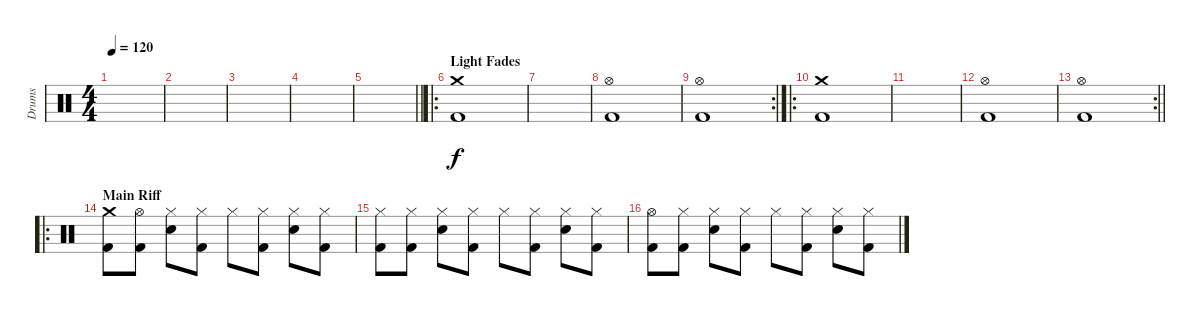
\track ("Drums" "Drums") {instrument percussion}
\staff {score}
\articulation defaults
\ts (4 4)
\tempo 120
\clef neutral
\ks c
|
|
|
|
\barLineRight lightlight
|
\ro
\section ("" "Light Fades")
("Kick (hit) 2" "Crash medium (hit)").1 |
|
("Kick (hit) 2" "Hi-Hat (open)").1 |
\rc 2
("Kick (hit) 2" "Hi-Hat (open)").1 |
\ro
("Kick (hit) 2" "Crash medium (hit)").1 |
|
("Kick (hit) 2" "Hi-Hat (open)").1 |
\rc 2
\barLineRight lightlight
("Kick (hit) 2" "Hi-Hat (open)").1 |
\ro
\section ("" "Main Riff")
("Kick (hit) 2" "Crash medium (hit)").8 ("Kick (hit) 2" "Hi-Hat (open)").8 ("Snare (hit) 2" "Hi-Hat (closed)").8 ("Kick (hit) 2" "Hi-Hat (closed)").8 "Hi-Hat (closed)".8 ("Kick (hit) 2" "Hi-Hat (closed)").8 ("Snare (hit) 2" "Hi-Hat (closed)").8 ("Kick (hit) 2" "Hi-Hat (closed)").8 |
("Kick (hit) 2" "Hi-Hat (closed)").8 ("Kick (hit) 2" "Hi-Hat (closed)").8 ("Snare (hit) 2" "Hi-Hat (closed)").8 ("Kick (hit) 2" "Hi-Hat (closed)").8 "Hi-Hat (closed)".8 ("Kick (hit) 2" "Hi-Hat (closed)").8 ("Snare (hit) 2" "Hi-Hat (closed)").8 ("Kick (hit) 2" "Hi-Hat (closed)").8 |
("Kick (hit) 2" "Hi-Hat (open)").8 ("Kick (hit) 2" "Hi-Hat (closed)").8 ("Snare (hit) 2" "Hi-Hat (closed)").8 ("Kick (hit) 2" "Hi-Hat (closed)").8 "Hi-Hat (closed)".8 ("Kick (hit) 2" "Hi-Hat (closed)").8 ("Snare (hit) 2" "Hi-Hat (closed)").8 ("Kick (hit) 2" "Hi-Hat (closed)").8
